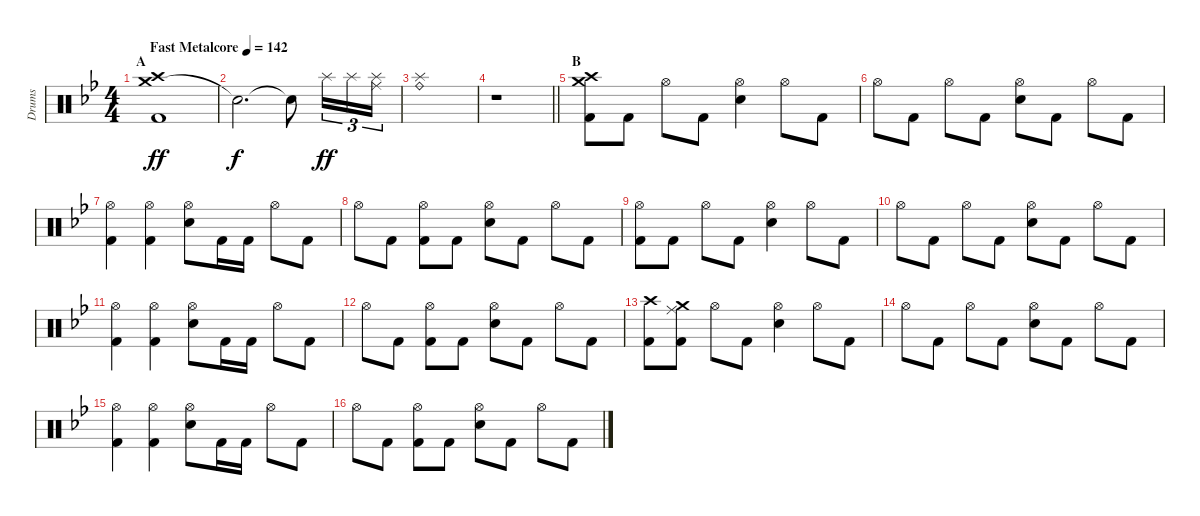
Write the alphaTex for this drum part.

\track ("Drums" "Drums") {instrument percussion}
\staff {score}
\articulation defaults
\ts (4 4)
\section ("" "A")
\tempo (142 "Fast Metalcore")
\clef neutral
\ks gminor
("Crash medium (hit)" "Crash high (hit)" "Kick (hit) 2").1{dy ff} |
"Snare (hit)"{t}.2{d dy f} "Snare (hit)"{t}.8 "Splash (hit)".16{tu (3 2) dy ff} "Splash (hit)".16{tu (3 2)} ("Ride (middle)" "Splash (hit)").16{tu (3 2)} |
("Ride (bell)" "Splash (hit)").1 |
\barLineRight lightlight
r.1 |
\section ("" "B")
("Crash medium (hit)" "Crash high (hit)" "Kick (hit) 2").8 "Kick (hit) 2".8 "Hi-Hat (open)".8 "Kick (hit) 2".8 ("Hi-Hat (open)" "Electric Snare (hit)").4 "Hi-Hat (open)".8 "Kick (hit) 2".8 |
"Hi-Hat (open)".8 "Kick (hit) 2".8 "Hi-Hat (open)".8 "Kick (hit) 2".8 ("Hi-Hat (open)" "Electric Snare (hit)").8 "Kick (hit) 2".8 "Hi-Hat (open)".8 "Kick (hit) 2".8 |
("Hi-Hat (open)" "Kick (hit) 2").4 ("Hi-Hat (open)" "Kick (hit) 2").4 ("Hi-Hat (open)" "Electric Snare (hit)").8 "Kick (hit) 2".16 "Kick (hit) 2".16 "Hi-Hat (open)".8 "Kick (hit) 2".8 |
"Hi-Hat (open)".8 "Kick (hit) 2".8 ("Hi-Hat (open)" "Kick (hit) 2").8 "Kick (hit) 2".8 ("Hi-Hat (open)" "Electric Snare (hit)").8 "Kick (hit) 2".8 "Hi-Hat (open)".8 "Kick (hit) 2".8 |
("Hi-Hat (open)" "Kick (hit) 2").8 "Kick (hit) 2".8 "Hi-Hat (open)".8 "Kick (hit) 2".8 ("Hi-Hat (open)" "Electric Snare (hit)").4 "Hi-Hat (open)".8 "Kick (hit) 2".8 |
"Hi-Hat (open)".8 "Kick (hit) 2".8 "Hi-Hat (open)".8 "Kick (hit) 2".8 ("Hi-Hat (open)" "Electric Snare (hit)").8 "Kick (hit) 2".8 "Hi-Hat (open)".8 "Kick (hit) 2".8 |
("Hi-Hat (open)" "Kick (hit) 2").4 ("Hi-Hat (open)" "Kick (hit) 2").4 ("Hi-Hat (open)" "Electric Snare (hit)").8 "Kick (hit) 2".16 "Kick (hit) 2".16 "Hi-Hat (open)".8 "Kick (hit) 2".8 |
"Hi-Hat (open)".8 "Kick (hit) 2".8 ("Hi-Hat (open)" "Kick (hit) 2").8 "Kick (hit) 2".8 ("Hi-Hat (open)" "Electric Snare (hit)").8 "Kick (hit) 2".8 "Hi-Hat (open)".8 "Kick (hit) 2".8 |
("Crash high (hit)" "Kick (hit) 2").8 ("Crash medium (hit)" "Ride (middle)" "Kick (hit) 2").8 "Hi-Hat (open)".8 "Kick (hit) 2".8 ("Hi-Hat (open)" "Electric Snare (hit)").4 "Hi-Hat (open)".8 "Kick (hit) 2".8 |
"Hi-Hat (open)".8 "Kick (hit) 2".8 "Hi-Hat (open)".8 "Kick (hit) 2".8 ("Hi-Hat (open)" "Electric Snare (hit)").8 "Kick (hit) 2".8 "Hi-Hat (open)".8 "Kick (hit) 2".8 |
("Hi-Hat (open)" "Kick (hit) 2").4 ("Hi-Hat (open)" "Kick (hit) 2").4 ("Hi-Hat (open)" "Electric Snare (hit)").8 "Kick (hit) 2".16 "Kick (hit) 2".16 "Hi-Hat (open)".8 "Kick (hit) 2".8 |
"Hi-Hat (open)".8 "Kick (hit) 2".8 ("Hi-Hat (open)" "Kick (hit) 2").8 "Kick (hit) 2".8 ("Hi-Hat (open)" "Electric Snare (hit)").8 "Kick (hit) 2".8 "Hi-Hat (open)".8 "Kick (hit) 2".8
